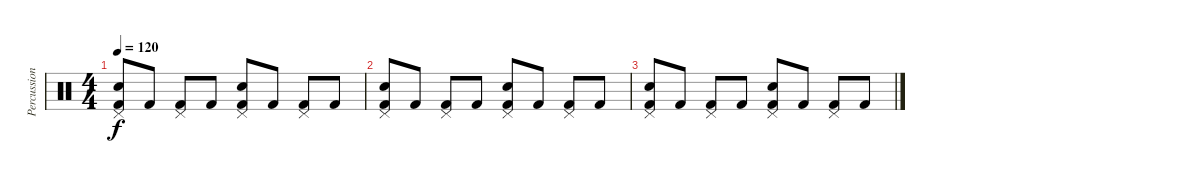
\track ("Percussions" "Percussion") {instrument percussion}
\staff {score}
\articulation defaults
\ts (4 4)
\tempo 120
\clef neutral
\ks c
("Pedal Hi-Hat (hit)" "Snare (hit) 2" "Kick (hit) 2").8{dy f} "Kick (hit) 2".8 ("Pedal Hi-Hat (hit)" "Kick (hit) 2").8 "Kick (hit) 2".8 ("Pedal Hi-Hat (hit)" "Snare (hit) 2" "Kick (hit) 2").8 "Kick (hit) 2".8 ("Pedal Hi-Hat (hit)" "Kick (hit) 2").8 "Kick (hit) 2".8 |
("Pedal Hi-Hat (hit)" "Snare (hit) 2" "Kick (hit) 2").8 "Kick (hit) 2".8 ("Pedal Hi-Hat (hit)" "Kick (hit) 2").8 "Kick (hit) 2".8 ("Pedal Hi-Hat (hit)" "Snare (hit) 2" "Kick (hit) 2").8 "Kick (hit) 2".8 ("Pedal Hi-Hat (hit)" "Kick (hit) 2").8 "Kick (hit) 2".8 |
("Pedal Hi-Hat (hit)" "Snare (hit) 2" "Kick (hit) 2").8 "Kick (hit) 2".8 ("Pedal Hi-Hat (hit)" "Kick (hit) 2").8 "Kick (hit) 2".8 ("Pedal Hi-Hat (hit)" "Snare (hit) 2" "Kick (hit) 2").8 "Kick (hit) 2".8 ("Pedal Hi-Hat (hit)" "Kick (hit) 2").8 "Kick (hit) 2".8
